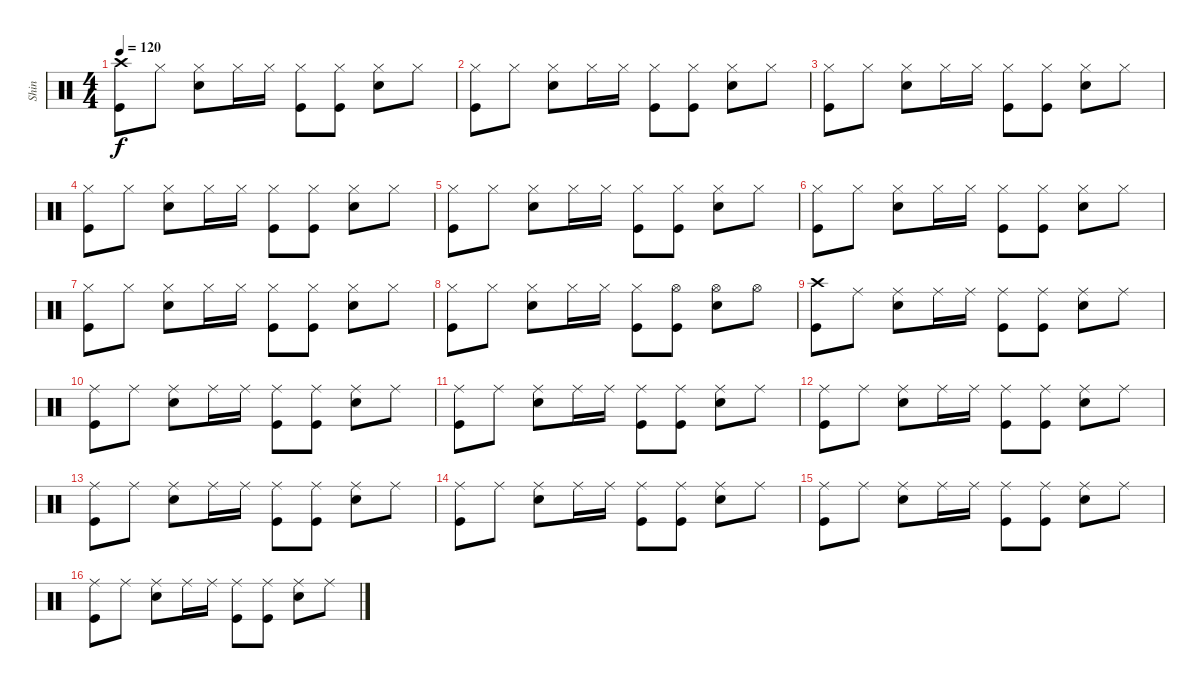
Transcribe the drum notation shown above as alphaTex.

\track ("Shin" "Shin") {instrument percussion}
\staff {score}
\articulation defaults
\ts (4 4)
\tempo 120
\clef neutral
\ks c
("Crash high (hit)" "Kick (hit)").8{dy f} "Hi-Hat (closed)".8 ("Hi-Hat (closed)" "Electric Snare (hit)").8 "Hi-Hat (closed)".16 "Hi-Hat (closed)".16 ("Hi-Hat (closed)" "Kick (hit)").8 ("Hi-Hat (closed)" "Kick (hit)").8 ("Hi-Hat (closed)" "Electric Snare (hit)").8 "Hi-Hat (closed)".8 |
("Hi-Hat (closed)" "Kick (hit)").8 "Hi-Hat (closed)".8 ("Hi-Hat (closed)" "Electric Snare (hit)").8 "Hi-Hat (closed)".16 "Hi-Hat (closed)".16 ("Hi-Hat (closed)" "Kick (hit)").8 ("Hi-Hat (closed)" "Kick (hit)").8 ("Hi-Hat (closed)" "Electric Snare (hit)").8 "Hi-Hat (closed)".8 |
("Hi-Hat (closed)" "Kick (hit)").8 "Hi-Hat (closed)".8 ("Hi-Hat (closed)" "Electric Snare (hit)").8 "Hi-Hat (closed)".16 "Hi-Hat (closed)".16 ("Hi-Hat (closed)" "Kick (hit)").8 ("Hi-Hat (closed)" "Kick (hit)").8 ("Hi-Hat (closed)" "Electric Snare (hit)").8 "Hi-Hat (closed)".8 |
("Hi-Hat (closed)" "Kick (hit)").8 "Hi-Hat (closed)".8 ("Hi-Hat (closed)" "Electric Snare (hit)").8 "Hi-Hat (closed)".16 "Hi-Hat (closed)".16 ("Hi-Hat (closed)" "Kick (hit)").8 ("Hi-Hat (closed)" "Kick (hit)").8 ("Hi-Hat (closed)" "Electric Snare (hit)").8 "Hi-Hat (closed)".8 |
("Hi-Hat (closed)" "Kick (hit)").8 "Hi-Hat (closed)".8 ("Hi-Hat (closed)" "Electric Snare (hit)").8 "Hi-Hat (closed)".16 "Hi-Hat (closed)".16 ("Hi-Hat (closed)" "Kick (hit)").8 ("Hi-Hat (closed)" "Kick (hit)").8 ("Hi-Hat (closed)" "Electric Snare (hit)").8 "Hi-Hat (closed)".8 |
("Hi-Hat (closed)" "Kick (hit)").8 "Hi-Hat (closed)".8 ("Hi-Hat (closed)" "Electric Snare (hit)").8 "Hi-Hat (closed)".16 "Hi-Hat (closed)".16 ("Hi-Hat (closed)" "Kick (hit)").8 ("Hi-Hat (closed)" "Kick (hit)").8 ("Hi-Hat (closed)" "Electric Snare (hit)").8 "Hi-Hat (closed)".8 |
("Hi-Hat (closed)" "Kick (hit)").8 "Hi-Hat (closed)".8 ("Hi-Hat (closed)" "Electric Snare (hit)").8 "Hi-Hat (closed)".16 "Hi-Hat (closed)".16 ("Hi-Hat (closed)" "Kick (hit)").8 ("Hi-Hat (closed)" "Kick (hit)").8 ("Hi-Hat (closed)" "Electric Snare (hit)").8 "Hi-Hat (closed)".8 |
("Hi-Hat (closed)" "Kick (hit)").8 "Hi-Hat (closed)".8 ("Hi-Hat (closed)" "Electric Snare (hit)").8 "Hi-Hat (closed)".16 "Hi-Hat (closed)".16 ("Hi-Hat (closed)" "Kick (hit)").8 ("Hi-Hat (open)" "Kick (hit)").8 ("Hi-Hat (open)" "Electric Snare (hit)").8 "Hi-Hat (open)".8 |
("Crash high (hit)" "Kick (hit)").8 "Ride (middle)".8 ("Ride (middle)" "Electric Snare (hit)").8 "Ride (middle)".16 "Ride (middle)".16 ("Ride (middle)" "Kick (hit)").8 ("Ride (middle)" "Kick (hit)").8 ("Ride (middle)" "Electric Snare (hit)").8 "Ride (middle)".8 |
("Ride (middle)" "Kick (hit)").8 "Ride (middle)".8 ("Ride (middle)" "Electric Snare (hit)").8 "Ride (middle)".16 "Ride (middle)".16 ("Ride (middle)" "Kick (hit)").8 ("Ride (middle)" "Kick (hit)").8 ("Ride (middle)" "Electric Snare (hit)").8 "Ride (middle)".8 |
("Ride (middle)" "Kick (hit)").8 "Ride (middle)".8 ("Ride (middle)" "Electric Snare (hit)").8 "Ride (middle)".16 "Ride (middle)".16 ("Ride (middle)" "Kick (hit)").8 ("Ride (middle)" "Kick (hit)").8 ("Ride (middle)" "Electric Snare (hit)").8 "Ride (middle)".8 |
("Ride (middle)" "Kick (hit)").8 "Ride (middle)".8 ("Ride (middle)" "Electric Snare (hit)").8 "Ride (middle)".16 "Ride (middle)".16 ("Ride (middle)" "Kick (hit)").8 ("Ride (middle)" "Kick (hit)").8 ("Ride (middle)" "Electric Snare (hit)").8 "Ride (middle)".8 |
("Ride (middle)" "Kick (hit)").8 "Ride (middle)".8 ("Ride (middle)" "Electric Snare (hit)").8 "Ride (middle)".16 "Ride (middle)".16 ("Ride (middle)" "Kick (hit)").8 ("Ride (middle)" "Kick (hit)").8 ("Ride (middle)" "Electric Snare (hit)").8 "Ride (middle)".8 |
("Ride (middle)" "Kick (hit)").8 "Ride (middle)".8 ("Ride (middle)" "Electric Snare (hit)").8 "Ride (middle)".16 "Ride (middle)".16 ("Ride (middle)" "Kick (hit)").8 ("Ride (middle)" "Kick (hit)").8 ("Ride (middle)" "Electric Snare (hit)").8 "Ride (middle)".8 |
("Ride (middle)" "Kick (hit)").8 "Ride (middle)".8 ("Ride (middle)" "Electric Snare (hit)").8 "Ride (middle)".16 "Ride (middle)".16 ("Ride (middle)" "Kick (hit)").8 ("Ride (middle)" "Kick (hit)").8 ("Ride (middle)" "Electric Snare (hit)").8 "Ride (middle)".8 |
("Ride (middle)" "Kick (hit)").8 "Ride (middle)".8 ("Ride (middle)" "Electric Snare (hit)").8 "Ride (middle)".16 "Ride (middle)".16 ("Ride (middle)" "Kick (hit)").8 ("Ride (middle)" "Kick (hit)").8 ("Ride (middle)" "Electric Snare (hit)").8 "Ride (middle)".8
